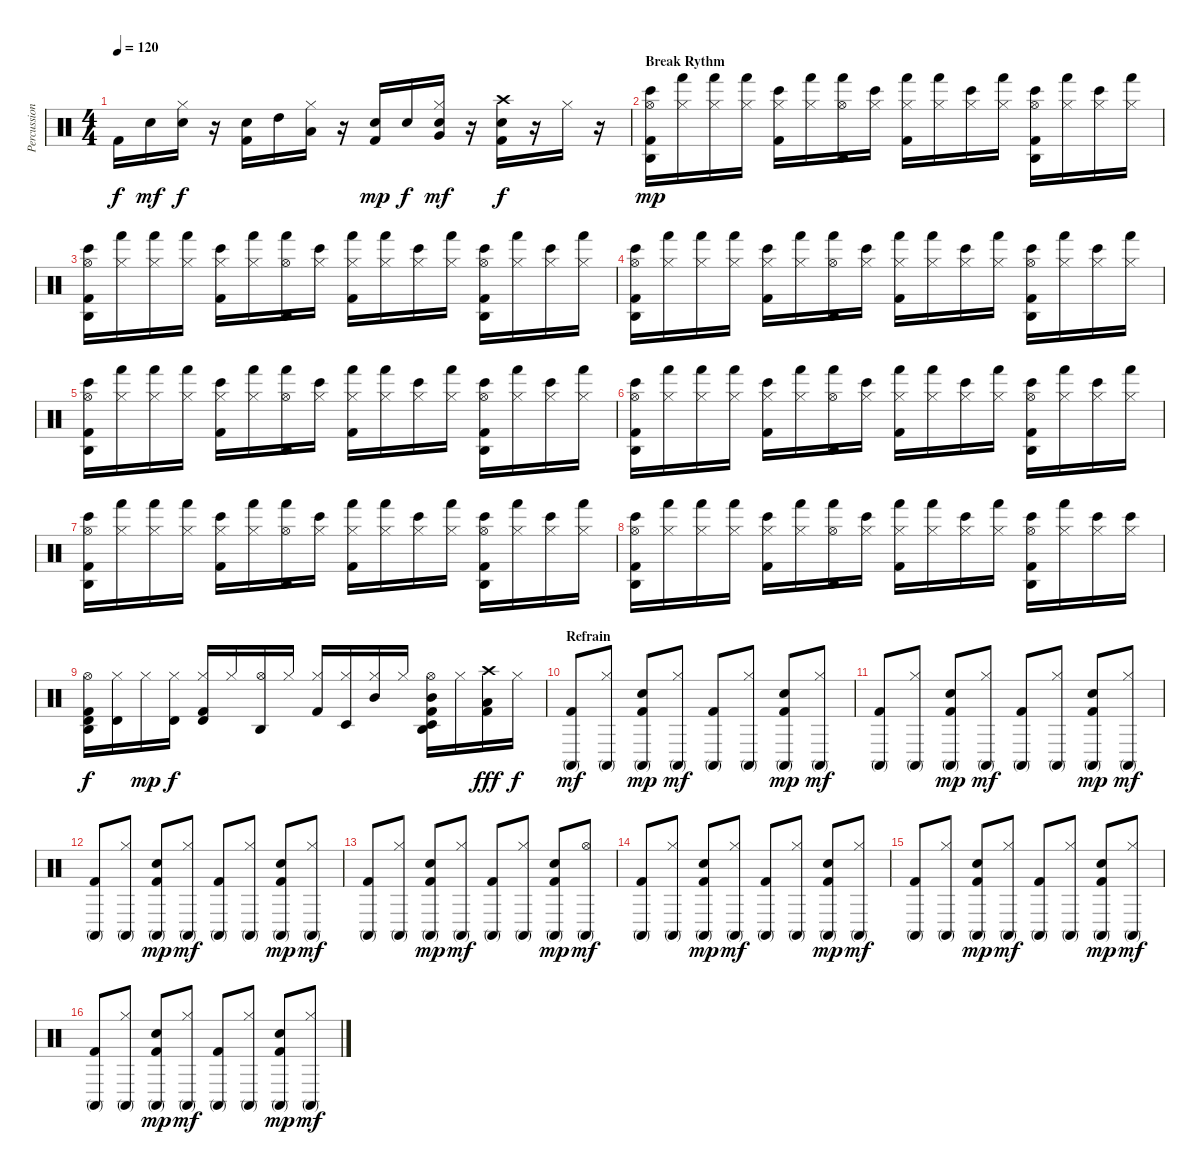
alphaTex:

\track ("Percussions" "Percussion") {instrument percussion}
\staff {score}
\articulation defaults
\ts (4 4)
\tempo 120
\clef neutral
\ks c "Kick (hit) 2".16{dy f} "Electric Snare (hit)".16{dy mf}
("Hi-Hat (closed)" "Electric Snare (hit)").16{dy f} r.16 ("Electric Snare (hit)" "Kick (hit) 2").16 "High Tom (hit)".16 ("Hi-Hat (closed)" "Low Tom (hit)").16 r.16 ("Electric Snare (hit)" "Kick (hit) 2").16{dy mp} "Electric Snare (hit)".16{dy f} ("Hi-Hat (closed)" "Electric Snare (hit)" "Very Low Tom (hit)").16{dy mf} r.16 ("Crash high (hit)" "Electric Snare (hit)" "Kick (hit) 2").16{dy f} r.16 "Hi-Hat (closed)".16 r.16 |
\section ("" "Break Rythm")
("Hi-Hat (open)" "Agogo high (hit)" "Bongo High (hit)" "Kick (hit) 2").16{dy mp} ("Hi-Hat (closed)" "Hand (hit)").16 ("Hi-Hat (closed)" "Hand (hit)").16 ("Hi-Hat (closed)" "Hand (hit)").16 ("Hi-Hat (closed)" "Bongo High (hit)" "Kick (hit) 2").16 ("Hi-Hat (closed)" "Hand (hit)").16 ("Hi-Hat (open)" "Agogo high (hit)" "Hand (hit)").16 ("Hi-Hat (closed)" "Bongo High (hit)").16 ("Hi-Hat (closed)" "Hand (hit)" "Kick (hit) 2").16 ("Hi-Hat (closed)" "Hand (hit)").16 ("Hi-Hat (closed)" "Bongo High (hit)").16 ("Hi-Hat (closed)" "Hand (hit)").16 ("Hi-Hat (open)" "Agogo high (hit)" "Bongo High (hit)" "Kick (hit) 2").16 ("Hi-Hat (closed)" "Hand (hit)").16 ("Hi-Hat (closed)" "Bongo High (hit)").16 ("Hi-Hat (closed)" "Hand (hit)").16 |
("Hi-Hat (open)" "Agogo high (hit)" "Bongo High (hit)" "Kick (hit) 2").16 ("Hi-Hat (closed)" "Hand (hit)").16 ("Hi-Hat (closed)" "Hand (hit)").16 ("Hi-Hat (closed)" "Hand (hit)").16 ("Hi-Hat (closed)" "Bongo High (hit)" "Kick (hit) 2").16 ("Hi-Hat (closed)" "Hand (hit)").16 ("Hi-Hat (open)" "Agogo high (hit)" "Hand (hit)").16 ("Hi-Hat (closed)" "Bongo High (hit)").16 ("Hi-Hat (closed)" "Hand (hit)" "Kick (hit) 2").16 ("Hi-Hat (closed)" "Hand (hit)").16 ("Hi-Hat (closed)" "Bongo High (hit)").16 ("Hi-Hat (closed)" "Hand (hit)").16 ("Hi-Hat (open)" "Agogo high (hit)" "Bongo High (hit)" "Kick (hit) 2").16 ("Hi-Hat (closed)" "Hand (hit)").16 ("Hi-Hat (closed)" "Bongo High (hit)").16 ("Hi-Hat (closed)" "Hand (hit)").16 |
("Hi-Hat (open)" "Agogo high (hit)" "Bongo High (hit)" "Kick (hit) 2").16 ("Hi-Hat (closed)" "Hand (hit)").16 ("Hi-Hat (closed)" "Hand (hit)").16 ("Hi-Hat (closed)" "Hand (hit)").16 ("Hi-Hat (closed)" "Bongo High (hit)" "Kick (hit) 2").16 ("Hi-Hat (closed)" "Hand (hit)").16 ("Hi-Hat (open)" "Agogo high (hit)" "Hand (hit)").16 ("Hi-Hat (closed)" "Bongo High (hit)").16 ("Hi-Hat (closed)" "Hand (hit)" "Kick (hit) 2").16 ("Hi-Hat (closed)" "Hand (hit)").16 ("Hi-Hat (closed)" "Bongo High (hit)").16 ("Hi-Hat (closed)" "Hand (hit)").16 ("Hi-Hat (open)" "Agogo high (hit)" "Bongo High (hit)" "Kick (hit) 2").16 ("Hi-Hat (closed)" "Hand (hit)").16 ("Hi-Hat (closed)" "Bongo High (hit)").16 ("Hi-Hat (closed)" "Hand (hit)").16 |
("Hi-Hat (open)" "Agogo high (hit)" "Bongo High (hit)" "Kick (hit) 2").16 ("Hi-Hat (closed)" "Hand (hit)").16 ("Hi-Hat (closed)" "Hand (hit)").16 ("Hi-Hat (closed)" "Hand (hit)").16 ("Hi-Hat (closed)" "Bongo High (hit)" "Kick (hit) 2").16 ("Hi-Hat (closed)" "Hand (hit)").16 ("Hi-Hat (open)" "Agogo high (hit)" "Hand (hit)").16 ("Hi-Hat (closed)" "Bongo High (hit)").16 ("Hi-Hat (closed)" "Hand (hit)" "Kick (hit) 2").16 ("Hi-Hat (closed)" "Hand (hit)").16 ("Hi-Hat (closed)" "Bongo High (hit)").16 ("Hi-Hat (closed)" "Hand (hit)").16 ("Hi-Hat (open)" "Agogo high (hit)" "Bongo High (hit)" "Kick (hit) 2").16 ("Hi-Hat (closed)" "Hand (hit)").16 ("Hi-Hat (closed)" "Bongo High (hit)").16 ("Hi-Hat (closed)" "Hand (hit)").16 |
("Hi-Hat (open)" "Agogo high (hit)" "Bongo High (hit)" "Kick (hit) 2").16 ("Hi-Hat (closed)" "Hand (hit)").16 ("Hi-Hat (closed)" "Hand (hit)").16 ("Hi-Hat (closed)" "Hand (hit)").16 ("Hi-Hat (closed)" "Bongo High (hit)" "Kick (hit) 2").16 ("Hi-Hat (closed)" "Hand (hit)").16 ("Hi-Hat (open)" "Agogo high (hit)" "Hand (hit)").16 ("Hi-Hat (closed)" "Bongo High (hit)").16 ("Hi-Hat (closed)" "Hand (hit)" "Kick (hit) 2").16 ("Hi-Hat (closed)" "Hand (hit)").16 ("Hi-Hat (closed)" "Bongo High (hit)").16 ("Hi-Hat (closed)" "Hand (hit)").16 ("Hi-Hat (open)" "Agogo high (hit)" "Bongo High (hit)" "Kick (hit) 2").16 ("Hi-Hat (closed)" "Hand (hit)").16 ("Hi-Hat (closed)" "Bongo High (hit)").16 ("Hi-Hat (closed)" "Hand (hit)").16 |
("Hi-Hat (open)" "Agogo high (hit)" "Bongo High (hit)" "Kick (hit) 2").16 ("Hi-Hat (closed)" "Hand (hit)").16 ("Hi-Hat (closed)" "Hand (hit)").16 ("Hi-Hat (closed)" "Hand (hit)").16 ("Hi-Hat (closed)" "Bongo High (hit)" "Kick (hit) 2").16 ("Hi-Hat (closed)" "Hand (hit)").16 ("Hi-Hat (open)" "Agogo high (hit)" "Hand (hit)").16 ("Hi-Hat (closed)" "Bongo High (hit)").16 ("Hi-Hat (closed)" "Hand (hit)" "Kick (hit) 2").16 ("Hi-Hat (closed)" "Hand (hit)").16 ("Hi-Hat (closed)" "Bongo High (hit)").16 ("Hi-Hat (closed)" "Hand (hit)").16 ("Hi-Hat (open)" "Agogo high (hit)" "Bongo High (hit)" "Kick (hit) 2").16 ("Hi-Hat (closed)" "Hand (hit)").16 ("Hi-Hat (closed)" "Bongo High (hit)").16 ("Hi-Hat (closed)" "Hand (hit)").16 |
("Hi-Hat (open)" "Agogo high (hit)" "Bongo High (hit)" "Kick (hit) 2").16 ("Hi-Hat (closed)" "Hand (hit)").16 ("Hi-Hat (closed)" "Hand (hit)").16 ("Hi-Hat (closed)" "Hand (hit)").16 ("Hi-Hat (closed)" "Bongo High (hit)" "Kick (hit) 2").16 ("Hi-Hat (closed)" "Hand (hit)").16 ("Hi-Hat (open)" "Agogo high (hit)" "Hand (hit)").16 ("Hi-Hat (closed)" "Bongo High (hit)").16 ("Hi-Hat (closed)" "Hand (hit)" "Kick (hit) 2").16 ("Hi-Hat (closed)" "Hand (hit)").16 ("Hi-Hat (closed)" "Bongo High (hit)").16 ("Hi-Hat (closed)" "Hand (hit)").16 ("Hi-Hat (open)" "Agogo high (hit)" "Bongo High (hit)" "Kick (hit) 2").16 ("Hi-Hat (closed)" "Hand (hit)").16 ("Hi-Hat (closed)" "Bongo High (hit)").16 ("Hi-Hat (closed)" "Bongo High (hit)").16 |
("Hi-Hat (open)" "Agogo high (hit)" "Timbale high (hit)" "Kick (hit) 2").16{dy f} ("Hi-Hat (closed)" "Timbale high (hit)").16 "Hi-Hat (closed)".16{dy mp} ("Hi-Hat (closed)" "Timbale high (hit)").16{dy f} ("Hi-Hat (closed)" "Timbale high (hit)" "Kick (hit) 2").16 "Hi-Hat (closed)".16 ("Hi-Hat (open)" "Agogo high (hit)").16 "Hi-Hat (closed)".16 ("Hi-Hat (closed)" "Kick (hit) 2").16 ("Hi-Hat (closed)" "Timbale low (hit)").16 ("Hi-Hat (closed)" "Mid Tom (hit)").16 "Hi-Hat (closed)".16 ("Hi-Hat (open)" "Agogo high (hit)" "Timbale low (hit)" "Mid Tom (hit)" "Kick (hit) 2").16 "Hi-Hat (closed)".16 ("Crash high (hit)" "Low Tom (hit)" "Kick (hit) 2").16{dy fff} "Hi-Hat (closed)".16{dy f} |
\section ("" "Refrain")
("Conga high (mute)" "Kick (hit) 2").8{dy mf} ("Hi-Hat (closed)" "Conga high (mute)").8 ("Conga high (mute)" "Electric Snare (hit)" "Kick (hit) 2").8{dy mp} ("Hi-Hat (closed)" "Conga high (mute)").8{dy mf} ("Conga high (mute)" "Kick (hit) 2").8 ("Hi-Hat (closed)" "Conga high (mute)").8 ("Conga high (mute)" "Electric Snare (hit)" "Kick (hit) 2").8{dy mp} ("Hi-Hat (closed)" "Conga high (mute)").8{dy mf} |
("Conga high (mute)" "Kick (hit) 2").8 ("Hi-Hat (closed)" "Conga high (mute)").8 ("Conga high (mute)" "Electric Snare (hit)" "Kick (hit) 2").8{dy mp} ("Hi-Hat (closed)" "Conga high (mute)").8{dy mf} ("Conga high (mute)" "Kick (hit) 2").8 ("Hi-Hat (closed)" "Conga high (mute)").8 ("Conga high (mute)" "Electric Snare (hit)" "Kick (hit) 2").8{dy mp} ("Hi-Hat (closed)" "Conga high (mute)").8{dy mf} |
("Conga high (mute)" "Kick (hit) 2").8 ("Hi-Hat (closed)" "Conga high (mute)").8 ("Conga high (mute)" "Electric Snare (hit)" "Kick (hit) 2").8{dy mp} ("Hi-Hat (closed)" "Conga high (mute)").8{dy mf} ("Conga high (mute)" "Kick (hit) 2").8 ("Hi-Hat (closed)" "Conga high (mute)").8 ("Conga high (mute)" "Electric Snare (hit)" "Kick (hit) 2").8{dy mp} ("Hi-Hat (closed)" "Conga high (mute)").8{dy mf} |
("Conga high (mute)" "Kick (hit) 2").8 ("Hi-Hat (closed)" "Conga high (mute)").8 ("Conga high (mute)" "Electric Snare (hit)" "Kick (hit) 2").8{dy mp} ("Hi-Hat (closed)" "Conga high (mute)").8{dy mf} ("Conga high (mute)" "Kick (hit) 2").8 ("Hi-Hat (closed)" "Conga high (mute)").8 ("Conga high (mute)" "Electric Snare (hit)" "Kick (hit) 2").8{dy mp} ("Hi-Hat (open)" "Conga high (mute)").8{dy mf} |
("Conga high (mute)" "Kick (hit) 2").8 ("Hi-Hat (closed)" "Conga high (mute)").8 ("Conga high (mute)" "Electric Snare (hit)" "Kick (hit) 2").8{dy mp} ("Hi-Hat (closed)" "Conga high (mute)").8{dy mf} ("Conga high (mute)" "Kick (hit) 2").8 ("Hi-Hat (closed)" "Conga high (mute)").8 ("Conga high (mute)" "Electric Snare (hit)" "Kick (hit) 2").8{dy mp} ("Hi-Hat (closed)" "Conga high (mute)").8{dy mf} |
("Conga high (mute)" "Kick (hit) 2").8 ("Hi-Hat (closed)" "Conga high (mute)").8 ("Conga high (mute)" "Electric Snare (hit)" "Kick (hit) 2").8{dy mp} ("Hi-Hat (closed)" "Conga high (mute)").8{dy mf} ("Conga high (mute)" "Kick (hit) 2").8 ("Hi-Hat (closed)" "Conga high (mute)").8 ("Conga high (mute)" "Electric Snare (hit)" "Kick (hit) 2").8{dy mp} ("Hi-Hat (closed)" "Conga high (mute)").8{dy mf} |
("Conga high (mute)" "Kick (hit) 2").8 ("Hi-Hat (closed)" "Conga high (mute)").8 ("Conga high (mute)" "Electric Snare (hit)" "Kick (hit) 2").8{dy mp} ("Hi-Hat (closed)" "Conga high (mute)").8{dy mf} ("Conga high (mute)" "Kick (hit) 2").8 ("Hi-Hat (closed)" "Conga high (mute)").8 ("Conga high (mute)" "Electric Snare (hit)" "Kick (hit) 2").8{dy mp} ("Hi-Hat (closed)" "Conga high (mute)").8{dy mf}
